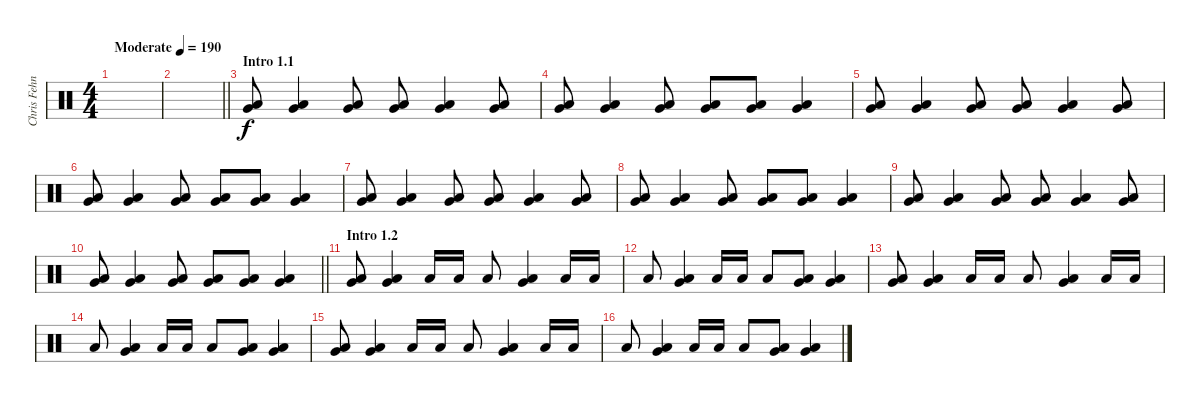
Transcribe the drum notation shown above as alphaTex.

\track ("Chris Fehn" "Chris Fehn") {instrument percussion}
\staff {score}
\articulation defaults
\ts (4 4)
\tempo (190 "Moderate")
\clef neutral
\ks c
|
\barLineRight lightlight
|
\section ("" "Intro 1.1")
("Very Low Tom (hit)" "Low Floor Tom (hit)").8 ("Very Low Tom (hit)" "Low Floor Tom (hit)").4 ("Very Low Tom (hit)" "Low Floor Tom (hit)").8 ("Very Low Tom (hit)" "Low Floor Tom (hit)").8 ("Very Low Tom (hit)" "Low Floor Tom (hit)").4 ("Very Low Tom (hit)" "Low Floor Tom (hit)").8 |
("Very Low Tom (hit)" "Low Floor Tom (hit)").8 ("Very Low Tom (hit)" "Low Floor Tom (hit)").4 ("Very Low Tom (hit)" "Low Floor Tom (hit)").8 ("Very Low Tom (hit)" "Low Floor Tom (hit)").8 ("Very Low Tom (hit)" "Low Floor Tom (hit)").8 ("Very Low Tom (hit)" "Low Floor Tom (hit)").4 |
("Very Low Tom (hit)" "Low Floor Tom (hit)").8 ("Very Low Tom (hit)" "Low Floor Tom (hit)").4 ("Very Low Tom (hit)" "Low Floor Tom (hit)").8 ("Very Low Tom (hit)" "Low Floor Tom (hit)").8 ("Very Low Tom (hit)" "Low Floor Tom (hit)").4 ("Very Low Tom (hit)" "Low Floor Tom (hit)").8 |
("Very Low Tom (hit)" "Low Floor Tom (hit)").8 ("Very Low Tom (hit)" "Low Floor Tom (hit)").4 ("Very Low Tom (hit)" "Low Floor Tom (hit)").8 ("Very Low Tom (hit)" "Low Floor Tom (hit)").8 ("Very Low Tom (hit)" "Low Floor Tom (hit)").8 ("Very Low Tom (hit)" "Low Floor Tom (hit)").4 |
("Very Low Tom (hit)" "Low Floor Tom (hit)").8 ("Very Low Tom (hit)" "Low Floor Tom (hit)").4 ("Very Low Tom (hit)" "Low Floor Tom (hit)").8 ("Very Low Tom (hit)" "Low Floor Tom (hit)").8 ("Very Low Tom (hit)" "Low Floor Tom (hit)").4 ("Very Low Tom (hit)" "Low Floor Tom (hit)").8 |
("Very Low Tom (hit)" "Low Floor Tom (hit)").8 ("Very Low Tom (hit)" "Low Floor Tom (hit)").4 ("Very Low Tom (hit)" "Low Floor Tom (hit)").8 ("Very Low Tom (hit)" "Low Floor Tom (hit)").8 ("Very Low Tom (hit)" "Low Floor Tom (hit)").8 ("Very Low Tom (hit)" "Low Floor Tom (hit)").4 |
("Very Low Tom (hit)" "Low Floor Tom (hit)").8 ("Very Low Tom (hit)" "Low Floor Tom (hit)").4 ("Very Low Tom (hit)" "Low Floor Tom (hit)").8 ("Very Low Tom (hit)" "Low Floor Tom (hit)").8 ("Very Low Tom (hit)" "Low Floor Tom (hit)").4 ("Very Low Tom (hit)" "Low Floor Tom (hit)").8 |
\barLineRight lightlight
("Very Low Tom (hit)" "Low Floor Tom (hit)").8 ("Very Low Tom (hit)" "Low Floor Tom (hit)").4 ("Very Low Tom (hit)" "Low Floor Tom (hit)").8 ("Very Low Tom (hit)" "Low Floor Tom (hit)").8 ("Very Low Tom (hit)" "Low Floor Tom (hit)").8 ("Very Low Tom (hit)" "Low Floor Tom (hit)").4 |
\section ("" "Intro 1.2")
("Very Low Tom (hit)" "Low Floor Tom (hit)").8 ("Very Low Tom (hit)" "Low Floor Tom (hit)").4 "Low Floor Tom (hit)".16 "Low Floor Tom (hit)".16 "Low Floor Tom (hit)".8 ("Very Low Tom (hit)" "Low Floor Tom (hit)").4 "Low Floor Tom (hit)".16 "Low Floor Tom (hit)".16 |
"Low Floor Tom (hit)".8 ("Very Low Tom (hit)" "Low Floor Tom (hit)").4 "Low Floor Tom (hit)".16 "Low Floor Tom (hit)".16 "Low Floor Tom (hit)".8 ("Very Low Tom (hit)" "Low Floor Tom (hit)").8 ("Very Low Tom (hit)" "Low Floor Tom (hit)").4 |
("Very Low Tom (hit)" "Low Floor Tom (hit)").8 ("Very Low Tom (hit)" "Low Floor Tom (hit)").4 "Low Floor Tom (hit)".16 "Low Floor Tom (hit)".16 "Low Floor Tom (hit)".8 ("Very Low Tom (hit)" "Low Floor Tom (hit)").4 "Low Floor Tom (hit)".16 "Low Floor Tom (hit)".16 |
"Low Floor Tom (hit)".8 ("Very Low Tom (hit)" "Low Floor Tom (hit)").4 "Low Floor Tom (hit)".16 "Low Floor Tom (hit)".16 "Low Floor Tom (hit)".8 ("Very Low Tom (hit)" "Low Floor Tom (hit)").8 ("Very Low Tom (hit)" "Low Floor Tom (hit)").4 |
("Very Low Tom (hit)" "Low Floor Tom (hit)").8 ("Very Low Tom (hit)" "Low Floor Tom (hit)").4 "Low Floor Tom (hit)".16 "Low Floor Tom (hit)".16 "Low Floor Tom (hit)".8 ("Very Low Tom (hit)" "Low Floor Tom (hit)").4 "Low Floor Tom (hit)".16 "Low Floor Tom (hit)".16 |
"Low Floor Tom (hit)".8 ("Very Low Tom (hit)" "Low Floor Tom (hit)").4 "Low Floor Tom (hit)".16 "Low Floor Tom (hit)".16 "Low Floor Tom (hit)".8 ("Very Low Tom (hit)" "Low Floor Tom (hit)").8 ("Very Low Tom (hit)" "Low Floor Tom (hit)").4
